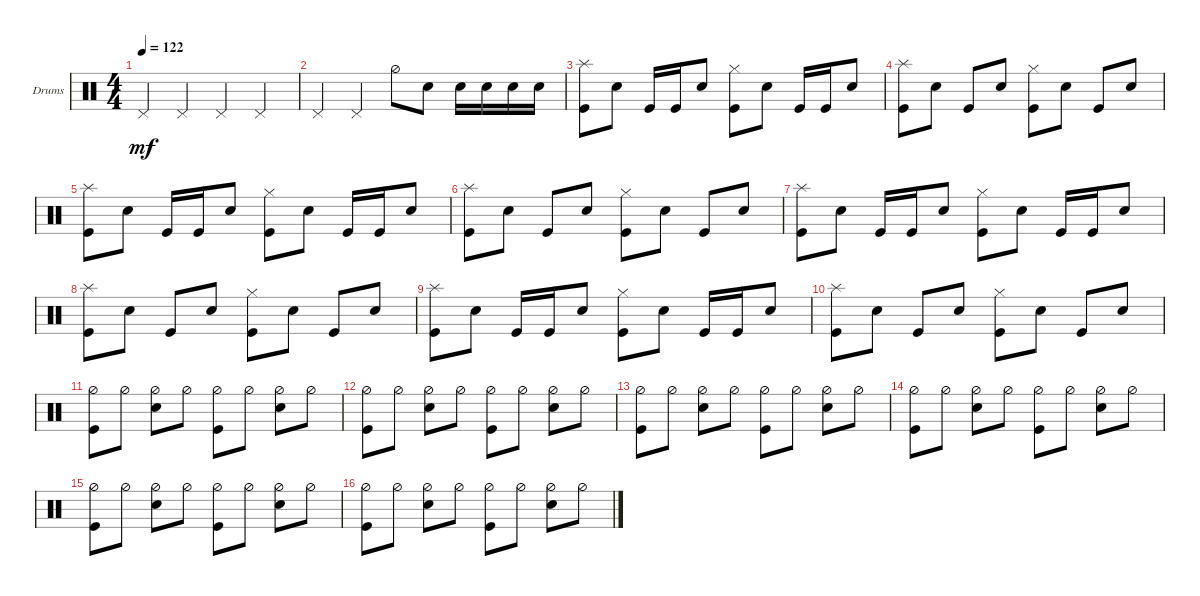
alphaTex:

\defaultSystemsLayout 4
\bracketExtendMode groupsimilarinstruments
\firstSystemTrackNameOrientation horizontal
\otherSystemsTrackNameOrientation horizontal
\track ("Drumkit" "Drums") {instrument percussion}
\staff {score}
\articulation defaults
\ts (4 4)
\tempo 122
\clef neutral
\ks c "Pedal Hi-Hat (hit)".4{dy mf} "Pedal Hi-Hat (hit)".4 "Pedal Hi-Hat (hit)".4 "Pedal Hi-Hat (hit)".4
|
"Pedal Hi-Hat (hit)".4 "Pedal Hi-Hat (hit)".4 "Hi-Hat (half)".8 "Snare (hit) 2".8 "Snare (hit) 2".16 "Snare (hit) 2".16 "Snare (hit) 2".16 "Snare (hit) 2".16 |
("Kick (hit)" "Splash (hit)").8 "Snare (hit) 2".8 "Kick (hit)".16 "Kick (hit)".16 "Snare (hit) 2".8 ("Kick (hit)" "Hi-Hat (closed)").8 "Snare (hit) 2".8 "Kick (hit)".16 "Kick (hit)".16 "Snare (hit) 2".8 |
("Kick (hit)" "Splash (hit)").8 "Snare (hit) 2".8 "Kick (hit)".8 "Snare (hit) 2".8 ("Kick (hit)" "Hi-Hat (closed)").8 "Snare (hit) 2".8 "Kick (hit)".8 "Snare (hit) 2".8 |
("Kick (hit)" "Splash (hit)").8 "Snare (hit) 2".8 "Kick (hit)".16 "Kick (hit)".16 "Snare (hit) 2".8 ("Kick (hit)" "Hi-Hat (closed)").8 "Snare (hit) 2".8 "Kick (hit)".16 "Kick (hit)".16 "Snare (hit) 2".8 |
("Kick (hit)" "Splash (hit)").8 "Snare (hit) 2".8 "Kick (hit)".8 "Snare (hit) 2".8 ("Kick (hit)" "Hi-Hat (closed)").8 "Snare (hit) 2".8 "Kick (hit)".8 "Snare (hit) 2".8 |
("Kick (hit)" "Splash (hit)").8 "Snare (hit) 2".8 "Kick (hit)".16 "Kick (hit)".16 "Snare (hit) 2".8 ("Kick (hit)" "Hi-Hat (closed)").8 "Snare (hit) 2".8 "Kick (hit)".16 "Kick (hit)".16 "Snare (hit) 2".8 |
("Kick (hit)" "Splash (hit)").8 "Snare (hit) 2".8 "Kick (hit)".8 "Snare (hit) 2".8 ("Kick (hit)" "Hi-Hat (closed)").8 "Snare (hit) 2".8 "Kick (hit)".8 "Snare (hit) 2".8 |
("Kick (hit)" "Splash (hit)").8 "Snare (hit) 2".8 "Kick (hit)".16 "Kick (hit)".16 "Snare (hit) 2".8 ("Kick (hit)" "Hi-Hat (closed)").8 "Snare (hit) 2".8 "Kick (hit)".16 "Kick (hit)".16 "Snare (hit) 2".8 |
("Kick (hit)" "Splash (hit)").8 "Snare (hit) 2".8 "Kick (hit)".8 "Snare (hit) 2".8 ("Kick (hit)" "Hi-Hat (closed)").8 "Snare (hit) 2".8 "Kick (hit)".8 "Snare (hit) 2".8 |
("Hi-Hat (half)" "Kick (hit)").8 "Hi-Hat (half)".8 ("Hi-Hat (half)" "Snare (hit) 2").8 "Hi-Hat (half)".8 ("Hi-Hat (half)" "Kick (hit)").8 "Hi-Hat (half)".8 ("Hi-Hat (half)" "Snare (hit) 2").8 "Hi-Hat (half)".8 |
("Hi-Hat (half)" "Kick (hit)").8 "Hi-Hat (half)".8 ("Hi-Hat (half)" "Snare (hit) 2").8 "Hi-Hat (half)".8 ("Hi-Hat (half)" "Kick (hit)").8 "Hi-Hat (half)".8 ("Hi-Hat (half)" "Snare (hit) 2").8 "Hi-Hat (half)".8 |
("Hi-Hat (half)" "Kick (hit)").8 "Hi-Hat (half)".8 ("Hi-Hat (half)" "Snare (hit) 2").8 "Hi-Hat (half)".8 ("Hi-Hat (half)" "Kick (hit)").8 "Hi-Hat (half)".8 ("Hi-Hat (half)" "Snare (hit) 2").8 "Hi-Hat (half)".8 |
("Hi-Hat (half)" "Kick (hit)").8 "Hi-Hat (half)".8 ("Hi-Hat (half)" "Snare (hit) 2").8 "Hi-Hat (half)".8 ("Hi-Hat (half)" "Kick (hit)").8 "Hi-Hat (half)".8 ("Hi-Hat (half)" "Snare (hit) 2").8 "Hi-Hat (half)".8 |
("Hi-Hat (half)" "Kick (hit)").8 "Hi-Hat (half)".8 ("Hi-Hat (half)" "Snare (hit) 2").8 "Hi-Hat (half)".8 ("Hi-Hat (half)" "Kick (hit)").8 "Hi-Hat (half)".8 ("Hi-Hat (half)" "Snare (hit) 2").8 "Hi-Hat (half)".8 |
("Hi-Hat (half)" "Kick (hit)").8 "Hi-Hat (half)".8 ("Hi-Hat (half)" "Snare (hit) 2").8 "Hi-Hat (half)".8 ("Hi-Hat (half)" "Kick (hit)").8 "Hi-Hat (half)".8 ("Hi-Hat (half)" "Snare (hit) 2").8 "Hi-Hat (half)".8
